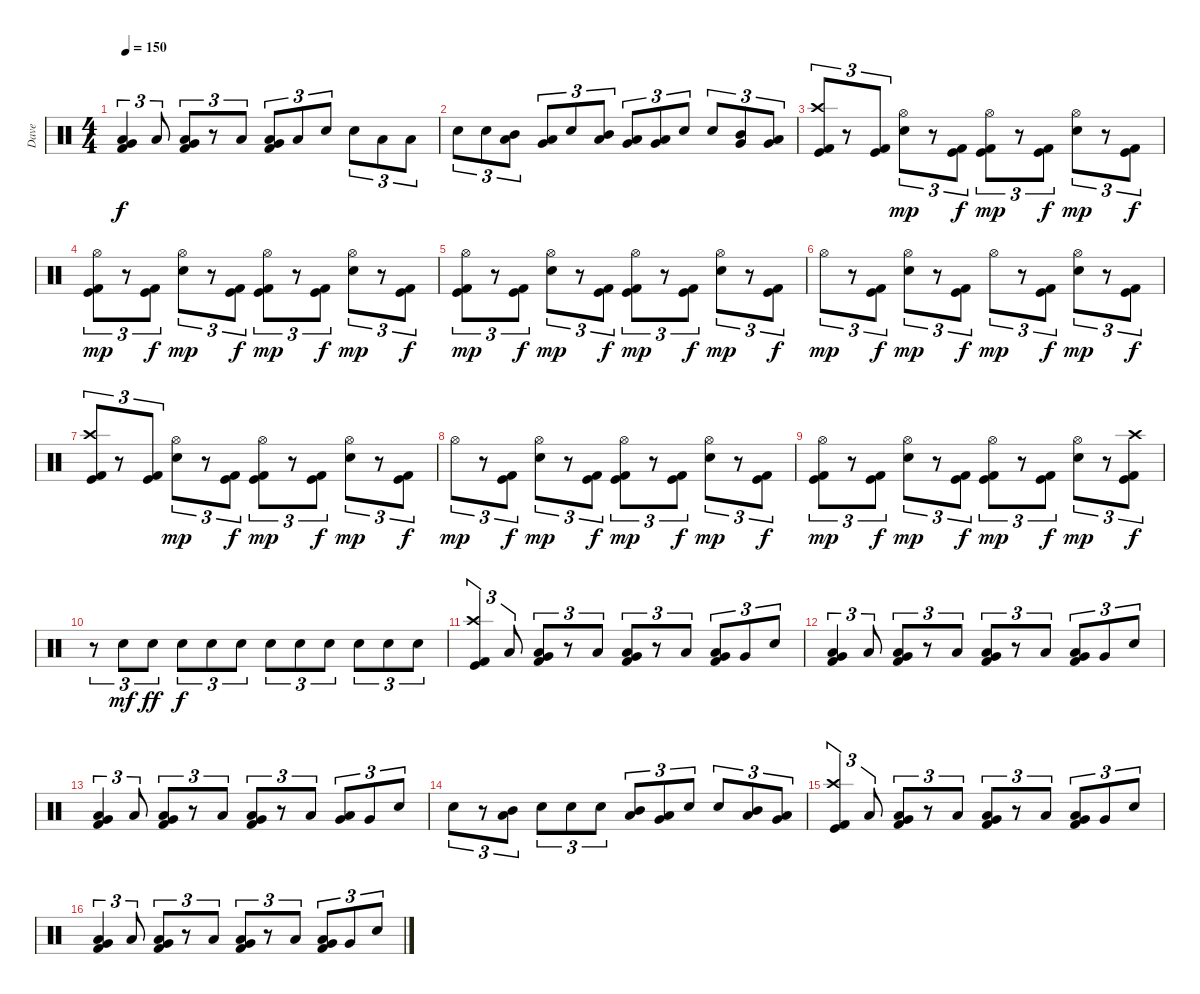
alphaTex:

\track ("Dave" "Dave") {instrument percussion}
\staff {score}
\articulation defaults
\ts (4 4)
\tempo 150
\clef neutral
\ks c
("Low Floor Tom (hit)" "Very Low Tom (hit)" "Kick (hit) 2").4{tu (3 2) bd 120 dy f} "Low Floor Tom (hit)".8{tu (3 2)} ("Low Floor Tom (hit)" "Very Low Tom (hit)" "Kick (hit) 2").8{tu (3 2) bd 120} r.8{tu (3 2)} "Low Floor Tom (hit)".8{tu (3 2)} ("Low Floor Tom (hit)" "Very Low Tom (hit)" "Kick (hit) 2").8{tu (3 2) bd 120} "Low Tom (hit)".8{tu (3 2)} "Electric Snare (hit)".8{tu (3 2)} "Electric Snare (hit)".8{tu (3 2)} "Low Tom (hit)".8{tu (3 2)} "Low Tom (hit)".8{tu (3 2)} |
"Electric Snare (hit)".8{tu (3 2)} "Electric Snare (hit)".8{tu (3 2)} ("Mid Tom (hit)" "Low Tom (hit)").8{tu (3 2)} ("Low Tom (hit)" "Very Low Tom (hit)").8{tu (3 2)} "Electric Snare (hit)".8{tu (3 2)} ("Mid Tom (hit)" "Low Tom (hit)").8{tu (3 2)} ("Low Tom (hit)" "Very Low Tom (hit)").8{tu (3 2)} ("Very Low Tom (hit)" "Low Tom (hit)").8{tu (3 2)} "Electric Snare (hit)".8{tu (3 2)} "Electric Snare (hit)".8{tu (3 2)} ("Mid Tom (hit)" "Very Low Tom (hit)").8{tu (3 2)} ("Low Tom (hit)" "Very Low Tom (hit)").8{tu (3 2)} |
("Crash high (hit)" "Kick (hit)" "Kick (hit) 2").8{tu (3 2)} r.8{tu (3 2)} ("Kick (hit)" "Kick (hit) 2").8{tu (3 2)} ("Hi-Hat (open)" "Electric Snare (hit)").8{tu (3 2) dy mp} r.8{tu (3 2)} ("Kick (hit)" "Kick (hit) 2").8{tu (3 2) dy f} ("Hi-Hat (open)" "Kick (hit)" "Kick (hit) 2").8{tu (3 2) dy mp} r.8{tu (3 2)} ("Kick (hit)" "Kick (hit) 2").8{tu (3 2) dy f} ("Hi-Hat (open)" "Electric Snare (hit)").8{tu (3 2) dy mp} r.8{tu (3 2)} ("Kick (hit)" "Kick (hit) 2").8{tu (3 2) dy f} |
("Hi-Hat (open)" "Kick (hit)" "Kick (hit) 2").8{tu (3 2) dy mp} r.8{tu (3 2)} ("Kick (hit)" "Kick (hit) 2").8{tu (3 2) dy f} ("Hi-Hat (open)" "Electric Snare (hit)").8{tu (3 2) dy mp} r.8{tu (3 2)} ("Kick (hit)" "Kick (hit) 2").8{tu (3 2) dy f} ("Hi-Hat (open)" "Kick (hit)" "Kick (hit) 2").8{tu (3 2) dy mp} r.8{tu (3 2)} ("Kick (hit)" "Kick (hit) 2").8{tu (3 2) dy f} ("Hi-Hat (open)" "Electric Snare (hit)").8{tu (3 2) dy mp} r.8{tu (3 2)} ("Kick (hit)" "Kick (hit) 2").8{tu (3 2) dy f} |
("Hi-Hat (open)" "Kick (hit)" "Kick (hit) 2").8{tu (3 2) dy mp} r.8{tu (3 2)} ("Kick (hit)" "Kick (hit) 2").8{tu (3 2) dy f} ("Hi-Hat (open)" "Electric Snare (hit)").8{tu (3 2) dy mp} r.8{tu (3 2)} ("Kick (hit)" "Kick (hit) 2").8{tu (3 2) dy f} ("Hi-Hat (open)" "Kick (hit)" "Kick (hit) 2").8{tu (3 2) dy mp} r.8{tu (3 2)} ("Kick (hit)" "Kick (hit) 2").8{tu (3 2) dy f} ("Hi-Hat (open)" "Electric Snare (hit)").8{tu (3 2) dy mp} r.8{tu (3 2)} ("Kick (hit)" "Kick (hit) 2").8{tu (3 2) dy f} |
"Hi-Hat (open)".8{tu (3 2) dy mp} r.8{tu (3 2)} ("Kick (hit)" "Kick (hit) 2").8{tu (3 2) dy f} ("Hi-Hat (open)" "Electric Snare (hit)").8{tu (3 2) dy mp} r.8{tu (3 2)} ("Kick (hit)" "Kick (hit) 2").8{tu (3 2) dy f} "Hi-Hat (open)".8{tu (3 2) dy mp} r.8{tu (3 2)} ("Kick (hit)" "Kick (hit) 2").8{tu (3 2) dy f} ("Hi-Hat (open)" "Electric Snare (hit)").8{tu (3 2) dy mp} r.8{tu (3 2)} ("Kick (hit)" "Kick (hit) 2").8{tu (3 2) dy f} |
("Crash high (hit)" "Kick (hit)" "Kick (hit) 2").8{tu (3 2)} r.8{tu (3 2)} ("Kick (hit)" "Kick (hit) 2").8{tu (3 2)} ("Hi-Hat (open)" "Electric Snare (hit)").8{tu (3 2) dy mp} r.8{tu (3 2)} ("Kick (hit)" "Kick (hit) 2").8{tu (3 2) dy f} ("Hi-Hat (open)" "Kick (hit)" "Kick (hit) 2").8{tu (3 2) dy mp} r.8{tu (3 2)} ("Kick (hit)" "Kick (hit) 2").8{tu (3 2) dy f} ("Hi-Hat (open)" "Electric Snare (hit)").8{tu (3 2) dy mp} r.8{tu (3 2)} ("Kick (hit)" "Kick (hit) 2").8{tu (3 2) dy f} |
"Hi-Hat (open)".8{tu (3 2) dy mp} r.8{tu (3 2)} ("Kick (hit)" "Kick (hit) 2").8{tu (3 2) dy f} ("Hi-Hat (open)" "Electric Snare (hit)").8{tu (3 2) dy mp} r.8{tu (3 2)} ("Kick (hit)" "Kick (hit) 2").8{tu (3 2) dy f} ("Hi-Hat (open)" "Kick (hit)" "Kick (hit) 2").8{tu (3 2) dy mp} r.8{tu (3 2)} ("Kick (hit)" "Kick (hit) 2").8{tu (3 2) dy f} ("Hi-Hat (open)" "Electric Snare (hit)").8{tu (3 2) dy mp} r.8{tu (3 2)} ("Kick (hit)" "Kick (hit) 2").8{tu (3 2) dy f} |
("Hi-Hat (open)" "Kick (hit)" "Kick (hit) 2").8{tu (3 2) dy mp} r.8{tu (3 2)} ("Kick (hit)" "Kick (hit) 2").8{tu (3 2) dy f} ("Hi-Hat (open)" "Electric Snare (hit)").8{tu (3 2) dy mp} r.8{tu (3 2)} ("Kick (hit)" "Kick (hit) 2").8{tu (3 2) dy f} ("Hi-Hat (open)" "Kick (hit)" "Kick (hit) 2").8{tu (3 2) dy mp} r.8{tu (3 2)} ("Kick (hit)" "Kick (hit) 2").8{tu (3 2) dy f} ("Hi-Hat (open)" "Electric Snare (hit)").8{tu (3 2) dy mp} r.8{tu (3 2)} ("Crash high (hit)" "Kick (hit)" "Kick (hit) 2").8{tu (3 2) dy f} |
r.8{tu (3 2)} "Electric Snare (hit)".8{tu (3 2) dy mf} "Electric Snare (hit)".8{tu (3 2) dy ff} "Electric Snare (hit)".8{tu (3 2) dy f} "Electric Snare (hit)".8{tu (3 2)} "Electric Snare (hit)".8{tu (3 2)} "Electric Snare (hit)".8{tu (3 2)} "Electric Snare (hit)".8{tu (3 2)} "Electric Snare (hit)".8{tu (3 2)} "Electric Snare (hit)".8{tu (3 2)} "Electric Snare (hit)".8{tu (3 2)} "Electric Snare (hit)".8{tu (3 2)} |
("Crash high (hit)" "Kick (hit)" "Kick (hit) 2").4{tu (3 2)} "Low Floor Tom (hit)".8{tu (3 2)} ("Low Floor Tom (hit)" "Very Low Tom (hit)" "Kick (hit) 2").8{tu (3 2) bd 120} r.8{tu (3 2)} "Low Floor Tom (hit)".8{tu (3 2)} ("Low Floor Tom (hit)" "Very Low Tom (hit)" "Kick (hit) 2").8{tu (3 2) bd 120} r.8{tu (3 2)} "Low Floor Tom (hit)".8{tu (3 2)} ("Low Floor Tom (hit)" "Very Low Tom (hit)" "Kick (hit) 2").8{tu (3 2) bd 120} "Very Low Tom (hit)".8{tu (3 2)} "Electric Snare (hit)".8{tu (3 2)} |
("Low Floor Tom (hit)" "Very Low Tom (hit)" "Kick (hit) 2").4{tu (3 2) bd 120} "Low Floor Tom (hit)".8{tu (3 2)} ("Low Floor Tom (hit)" "Very Low Tom (hit)" "Kick (hit) 2").8{tu (3 2) bd 120} r.8{tu (3 2)} "Low Floor Tom (hit)".8{tu (3 2)} ("Low Floor Tom (hit)" "Very Low Tom (hit)" "Kick (hit) 2").8{tu (3 2) bd 120} r.8{tu (3 2)} "Low Floor Tom (hit)".8{tu (3 2)} ("Low Floor Tom (hit)" "Very Low Tom (hit)" "Kick (hit) 2").8{tu (3 2) bd 120} "Very Low Tom (hit)".8{tu (3 2)} "Electric Snare (hit)".8{tu (3 2)} |
("Low Floor Tom (hit)" "Very Low Tom (hit)" "Kick (hit) 2").4{tu (3 2) bd 120} "Low Floor Tom (hit)".8{tu (3 2)} ("Low Floor Tom (hit)" "Very Low Tom (hit)" "Kick (hit) 2").8{tu (3 2) bd 120} r.8{tu (3 2)} "Low Floor Tom (hit)".8{tu (3 2)} ("Low Floor Tom (hit)" "Very Low Tom (hit)" "Kick (hit) 2").8{tu (3 2) bd 120} r.8{tu (3 2)} "Low Floor Tom (hit)".8{tu (3 2)} ("Low Tom (hit)" "Very Low Tom (hit)").8{tu (3 2) bd 120} "Very Low Tom (hit)".8{tu (3 2)} "Electric Snare (hit)".8{tu (3 2)} |
"Electric Snare (hit)".8{tu (3 2)} r.8{tu (3 2)} ("Low Tom (hit)" "Mid Tom (hit)").8{tu (3 2)} "Electric Snare (hit)".8{tu (3 2)} "Electric Snare (hit)".8{tu (3 2)} "Electric Snare (hit)".8{tu (3 2)} ("Mid Tom (hit)" "Low Tom (hit)").8{tu (3 2)} ("Very Low Tom (hit)" "Low Tom (hit)").8{tu (3 2)} "Electric Snare (hit)".8{tu (3 2)} "Electric Snare (hit)".8{tu (3 2)} ("Mid Tom (hit)" "Low Tom (hit)").8{tu (3 2)} ("Very Low Tom (hit)" "Low Tom (hit)").8{tu (3 2)} |
("Crash high (hit)" "Kick (hit)" "Kick (hit) 2").4{tu (3 2)} "Low Floor Tom (hit)".8{tu (3 2)} ("Low Floor Tom (hit)" "Very Low Tom (hit)" "Kick (hit) 2").8{tu (3 2) bd 120} r.8{tu (3 2)} "Low Floor Tom (hit)".8{tu (3 2)} ("Low Floor Tom (hit)" "Very Low Tom (hit)" "Kick (hit) 2").8{tu (3 2) bd 120} r.8{tu (3 2)} "Low Floor Tom (hit)".8{tu (3 2)} ("Low Floor Tom (hit)" "Very Low Tom (hit)" "Kick (hit) 2").8{tu (3 2) bd 120} "Very Low Tom (hit)".8{tu (3 2)} "Electric Snare (hit)".8{tu (3 2)} |
("Low Floor Tom (hit)" "Very Low Tom (hit)" "Kick (hit) 2").4{tu (3 2) bd 120} "Low Floor Tom (hit)".8{tu (3 2)} ("Low Floor Tom (hit)" "Very Low Tom (hit)" "Kick (hit) 2").8{tu (3 2) bd 120} r.8{tu (3 2)} "Low Floor Tom (hit)".8{tu (3 2)} ("Low Floor Tom (hit)" "Very Low Tom (hit)" "Kick (hit) 2").8{tu (3 2) bd 120} r.8{tu (3 2)} "Low Floor Tom (hit)".8{tu (3 2)} ("Low Floor Tom (hit)" "Very Low Tom (hit)" "Kick (hit) 2").8{tu (3 2) bd 120} "Very Low Tom (hit)".8{tu (3 2)} "Electric Snare (hit)".8{tu (3 2)}
